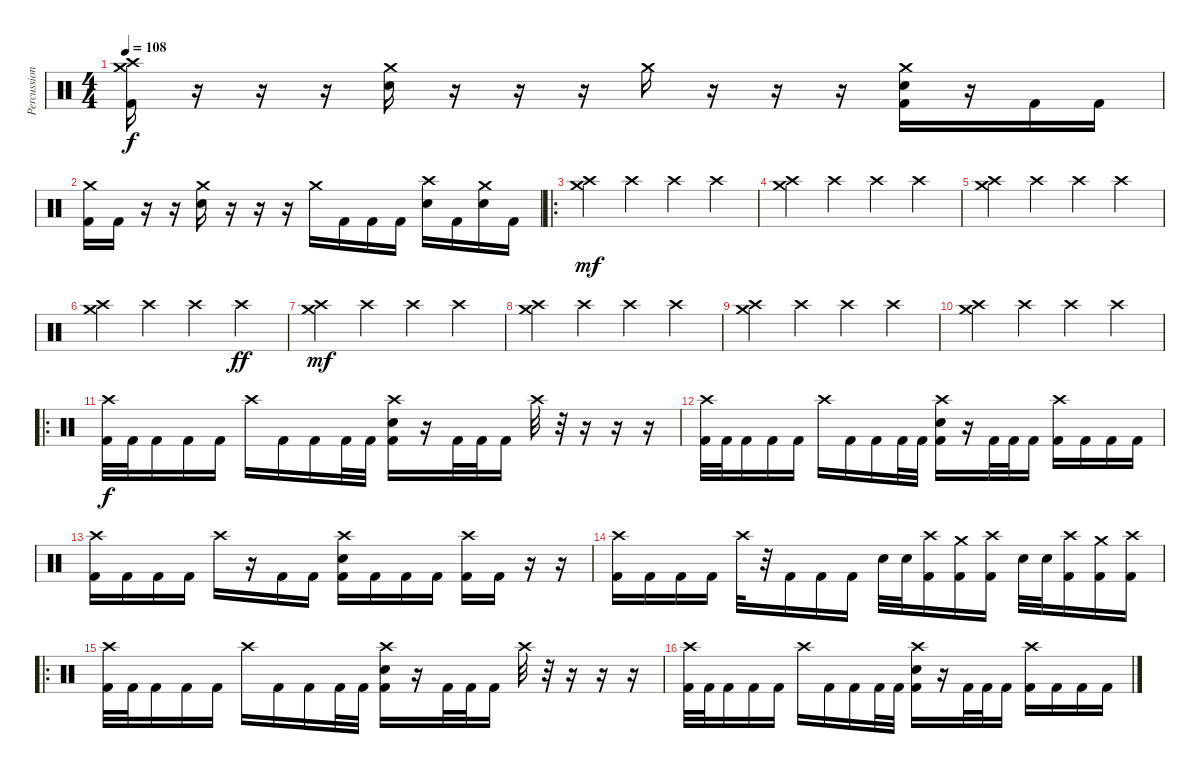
\track ("Percussion" "Percussion") {instrument percussion}
\staff {score}
\articulation defaults
\ts (4 4)
\tempo 108
\clef neutral
\ks c
("Crash medium (hit)" "Crash high (hit)" "Kick (hit) 2").16{dy f} r.16 r.16 r.16 ("Crash medium (hit)" "Electric Snare (hit)").16 r.16 r.16 r.16 "Crash medium (hit)".16 r.16 r.16 r.16 ("Crash medium (hit)" "Electric Snare (hit)" "Kick (hit) 2").16 r.16 "Kick (hit) 2".16 "Kick (hit) 2".16 |
("Crash medium (hit)" "Kick (hit) 2").16 "Kick (hit) 2".16 r.16 r.16 ("Crash medium (hit)" "Electric Snare (hit)").16 r.16 r.16 r.16 "Crash medium (hit)".16 "Kick (hit) 2".16 "Kick (hit) 2".16 "Kick (hit) 2".16 ("Crash high (hit)" "Electric Snare (hit)").16 "Kick (hit) 2".16 ("Crash medium (hit)" "Electric Snare (hit)").16 "Kick (hit) 2".16 |
\ro
("Crash medium (hit)" "Crash high (hit)").4{dy mf} "Crash high (hit)".4 "Crash high (hit)".4 "Crash high (hit)".4 |
("Crash medium (hit)" "Crash high (hit)").4 "Crash high (hit)".4 "Crash high (hit)".4 "Crash high (hit)".4 |
("Crash medium (hit)" "Crash high (hit)").4 "Crash high (hit)".4 "Crash high (hit)".4 "Crash high (hit)".4 |
("Crash medium (hit)" "Crash high (hit)").4 "Crash high (hit)".4 "Crash high (hit)".4 "Crash high (hit)".4{dy ff} |
("Crash medium (hit)" "Crash high (hit)").4{dy mf} "Crash high (hit)".4 "Crash high (hit)".4 "Crash high (hit)".4 |
("Crash medium (hit)" "Crash high (hit)").4 "Crash high (hit)".4 "Crash high (hit)".4 "Crash high (hit)".4 |
("Crash medium (hit)" "Crash high (hit)").4 "Crash high (hit)".4 "Crash high (hit)".4 "Crash high (hit)".4 |
("Crash medium (hit)" "Crash high (hit)").4 "Crash high (hit)".4 "Crash high (hit)".4 "Crash high (hit)".4 |
\ro
("Crash high (hit)" "Kick (hit) 2").32{dy f} "Kick (hit) 2".32 "Kick (hit) 2".16 "Kick (hit) 2".16 "Kick (hit) 2".16 "Crash high (hit)".16 "Kick (hit) 2".16 "Kick (hit) 2".16 "Kick (hit) 2".32 "Kick (hit) 2".32 ("Crash high (hit)" "Electric Snare (hit)" "Kick (hit) 2").16 r.16 "Kick (hit) 2".32 "Kick (hit) 2".32 "Kick (hit) 2".16 "Crash high (hit)".32 r.32 r.16 r.16 r.16 |
("Crash high (hit)" "Kick (hit) 2").32 "Kick (hit) 2".32 "Kick (hit) 2".16 "Kick (hit) 2".16 "Kick (hit) 2".16 "Crash high (hit)".16 "Kick (hit) 2".16 "Kick (hit) 2".16 "Kick (hit) 2".32 "Kick (hit) 2".32 ("Crash high (hit)" "Electric Snare (hit)" "Kick (hit) 2").16 r.16 "Kick (hit) 2".32 "Kick (hit) 2".32 "Kick (hit) 2".16 ("Crash high (hit)" "Kick (hit) 2").16 "Kick (hit) 2".16 "Kick (hit) 2".16 "Kick (hit) 2".16 |
("Crash high (hit)" "Kick (hit) 2").16 "Kick (hit) 2".16 "Kick (hit) 2".16 "Kick (hit) 2".16 "Crash high (hit)".16 r.16 "Kick (hit) 2".16 "Kick (hit) 2".16 ("Crash high (hit)" "Electric Snare (hit)" "Kick (hit) 2").16 "Kick (hit) 2".16 "Kick (hit) 2".16 "Kick (hit) 2".16 ("Crash high (hit)" "Kick (hit) 2").16 "Kick (hit) 2".16 r.16 r.16 |
("Crash high (hit)" "Kick (hit) 2").16 "Kick (hit) 2".16 "Kick (hit) 2".16 "Kick (hit) 2".16 "Crash high (hit)".32 r.32 "Kick (hit) 2".16 "Kick (hit) 2".16 "Kick (hit) 2".16 "Electric Snare (hit)".32 "Electric Snare (hit)".32 ("Crash high (hit)" "Kick (hit) 2").16 ("Crash medium (hit)" "Kick (hit) 2").16 ("Crash high (hit)" "Kick (hit) 2").16 "Electric Snare (hit)".32 "Electric Snare (hit)".32 ("Crash high (hit)" "Kick (hit) 2").16 ("Crash medium (hit)" "Kick (hit) 2").16 ("Crash high (hit)" "Kick (hit) 2").16 |
\ro
("Crash high (hit)" "Kick (hit) 2").32 "Kick (hit) 2".32 "Kick (hit) 2".16 "Kick (hit) 2".16 "Kick (hit) 2".16 "Crash high (hit)".16 "Kick (hit) 2".16 "Kick (hit) 2".16 "Kick (hit) 2".32 "Kick (hit) 2".32 ("Crash high (hit)" "Electric Snare (hit)" "Kick (hit) 2").16 r.16 "Kick (hit) 2".32 "Kick (hit) 2".32 "Kick (hit) 2".16 "Crash high (hit)".32 r.32 r.16 r.16 r.16 |
("Crash high (hit)" "Kick (hit) 2").32 "Kick (hit) 2".32 "Kick (hit) 2".16 "Kick (hit) 2".16 "Kick (hit) 2".16 "Crash high (hit)".16 "Kick (hit) 2".16 "Kick (hit) 2".16 "Kick (hit) 2".32 "Kick (hit) 2".32 ("Crash high (hit)" "Electric Snare (hit)" "Kick (hit) 2").16 r.16 "Kick (hit) 2".32 "Kick (hit) 2".32 "Kick (hit) 2".16 ("Crash high (hit)" "Kick (hit) 2").16 "Kick (hit) 2".16 "Kick (hit) 2".16 "Kick (hit) 2".16
